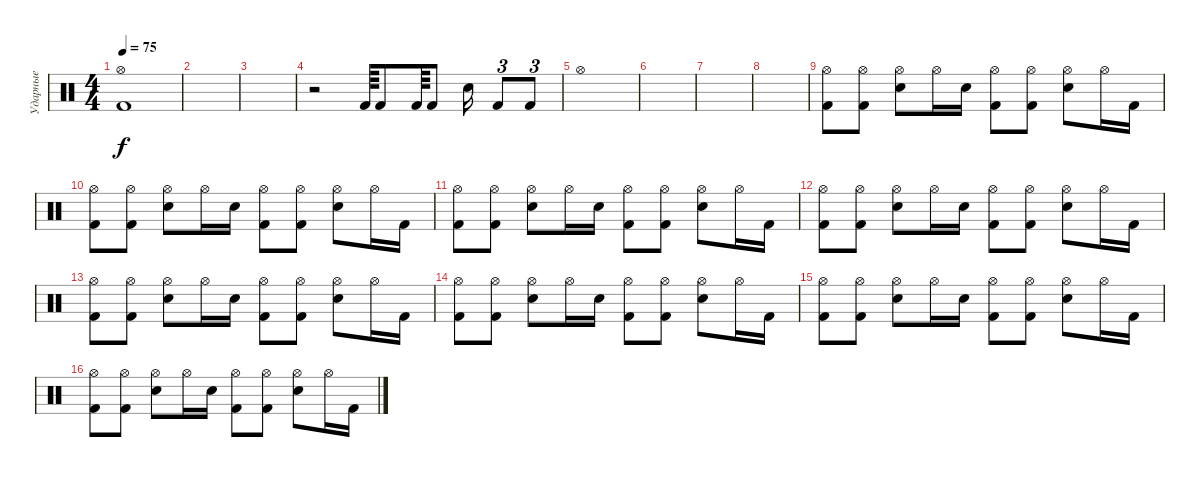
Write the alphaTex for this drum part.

\track ("Ударные" "Ударные") {instrument percussion}
\staff {score}
\articulation defaults
\ts (4 4)
\tempo 75
\clef neutral
\ks c
("Hi-Hat (open)" "Kick (hit) 2").1{dy f} |
|
|
r.2 "Kick (hit) 2".64 "Kick (hit) 2".8 "Kick (hit) 2".64 "Kick (hit) 2".8 "Electric Snare (hit)".16 "Kick (hit) 2".8{tu (3 2)} "Kick (hit) 2".8{tu (3 2)} |
"Hi-Hat (open)".1 |
|
|
|
("Hi-Hat (open)" "Kick (hit) 2").8 ("Hi-Hat (open)" "Kick (hit) 2").8 ("Hi-Hat (open)" "Electric Snare (hit)").8 "Hi-Hat (open)".16 "Electric Snare (hit)".16 ("Hi-Hat (open)" "Kick (hit) 2").8 ("Hi-Hat (open)" "Kick (hit) 2").8 ("Hi-Hat (open)" "Electric Snare (hit)").8 "Hi-Hat (open)".16 "Kick (hit) 2".16 |
("Hi-Hat (open)" "Kick (hit) 2").8 ("Hi-Hat (open)" "Kick (hit) 2").8 ("Hi-Hat (open)" "Electric Snare (hit)").8 "Hi-Hat (open)".16 "Electric Snare (hit)".16 ("Hi-Hat (open)" "Kick (hit) 2").8 ("Hi-Hat (open)" "Kick (hit) 2").8 ("Hi-Hat (open)" "Electric Snare (hit)").8 "Hi-Hat (open)".16 "Kick (hit) 2".16 |
("Hi-Hat (open)" "Kick (hit) 2").8 ("Hi-Hat (open)" "Kick (hit) 2").8 ("Hi-Hat (open)" "Electric Snare (hit)").8 "Hi-Hat (open)".16 "Electric Snare (hit)".16 ("Hi-Hat (open)" "Kick (hit) 2").8 ("Hi-Hat (open)" "Kick (hit) 2").8 ("Hi-Hat (open)" "Electric Snare (hit)").8 "Hi-Hat (open)".16 "Kick (hit) 2".16 |
("Hi-Hat (open)" "Kick (hit) 2").8 ("Hi-Hat (open)" "Kick (hit) 2").8 ("Hi-Hat (open)" "Electric Snare (hit)").8 "Hi-Hat (open)".16 "Electric Snare (hit)".16 ("Hi-Hat (open)" "Kick (hit) 2").8 ("Hi-Hat (open)" "Kick (hit) 2").8 ("Hi-Hat (open)" "Electric Snare (hit)").8 "Hi-Hat (open)".16 "Kick (hit) 2".16 |
("Hi-Hat (open)" "Kick (hit) 2").8 ("Hi-Hat (open)" "Kick (hit) 2").8 ("Hi-Hat (open)" "Electric Snare (hit)").8 "Hi-Hat (open)".16 "Electric Snare (hit)".16 ("Hi-Hat (open)" "Kick (hit) 2").8 ("Hi-Hat (open)" "Kick (hit) 2").8 ("Hi-Hat (open)" "Electric Snare (hit)").8 "Hi-Hat (open)".16 "Kick (hit) 2".16 |
("Hi-Hat (open)" "Kick (hit) 2").8 ("Hi-Hat (open)" "Kick (hit) 2").8 ("Hi-Hat (open)" "Electric Snare (hit)").8 "Hi-Hat (open)".16 "Electric Snare (hit)".16 ("Hi-Hat (open)" "Kick (hit) 2").8 ("Hi-Hat (open)" "Kick (hit) 2").8 ("Hi-Hat (open)" "Electric Snare (hit)").8 "Hi-Hat (open)".16 "Kick (hit) 2".16 |
("Hi-Hat (open)" "Kick (hit) 2").8 ("Hi-Hat (open)" "Kick (hit) 2").8 ("Hi-Hat (open)" "Electric Snare (hit)").8 "Hi-Hat (open)".16 "Electric Snare (hit)".16 ("Hi-Hat (open)" "Kick (hit) 2").8 ("Hi-Hat (open)" "Kick (hit) 2").8 ("Hi-Hat (open)" "Electric Snare (hit)").8 "Hi-Hat (open)".16 "Kick (hit) 2".16 |
("Hi-Hat (open)" "Kick (hit) 2").8 ("Hi-Hat (open)" "Kick (hit) 2").8 ("Hi-Hat (open)" "Electric Snare (hit)").8 "Hi-Hat (open)".16 "Electric Snare (hit)".16 ("Hi-Hat (open)" "Kick (hit) 2").8 ("Hi-Hat (open)" "Kick (hit) 2").8 ("Hi-Hat (open)" "Electric Snare (hit)").8 "Hi-Hat (open)".16 "Kick (hit) 2".16
